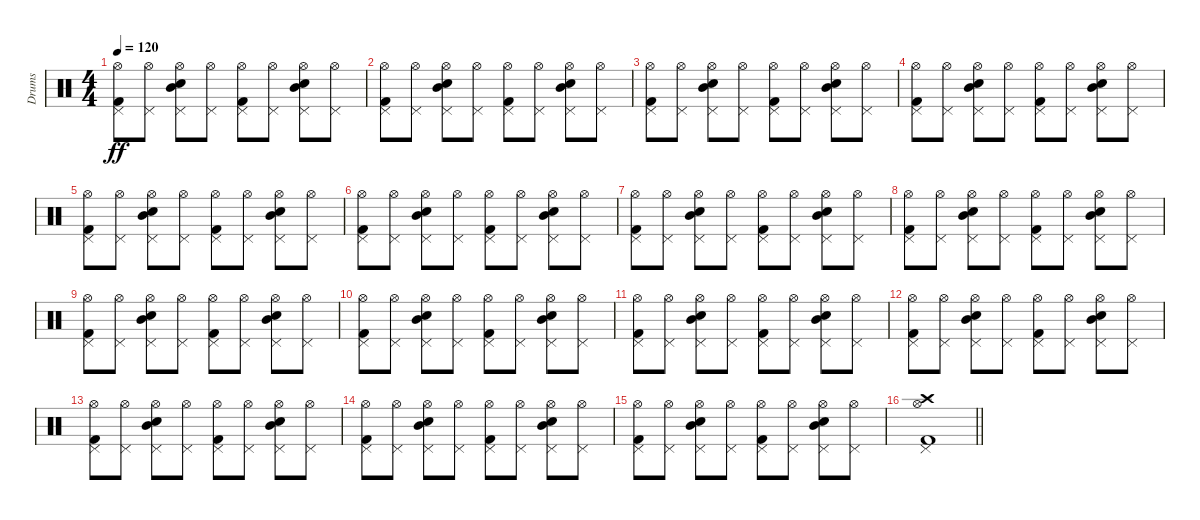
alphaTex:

\track ("Drums" "Drums") {instrument percussion}
\staff {score}
\articulation defaults
\ts (4 4)
\tempo 120
\clef neutral
\ks c
("Pedal Hi-Hat (hit)" "Hi-Hat (open)" "Kick (hit) 2").8{dy ff} ("Pedal Hi-Hat (hit)" "Hi-Hat (open)").8 ("Pedal Hi-Hat (hit)" "Hi-Hat (open)" "Electric Snare (hit)" "Mid Tom (hit)").8 ("Pedal Hi-Hat (hit)" "Hi-Hat (open)").8 ("Pedal Hi-Hat (hit)" "Hi-Hat (open)" "Kick (hit) 2").8 ("Pedal Hi-Hat (hit)" "Hi-Hat (open)").8 ("Pedal Hi-Hat (hit)" "Hi-Hat (open)" "Electric Snare (hit)" "Mid Tom (hit)").8 ("Pedal Hi-Hat (hit)" "Hi-Hat (open)").8 |
("Pedal Hi-Hat (hit)" "Hi-Hat (open)" "Kick (hit) 2").8 ("Pedal Hi-Hat (hit)" "Hi-Hat (open)").8 ("Pedal Hi-Hat (hit)" "Hi-Hat (open)" "Electric Snare (hit)" "Mid Tom (hit)").8 ("Pedal Hi-Hat (hit)" "Hi-Hat (open)").8 ("Pedal Hi-Hat (hit)" "Hi-Hat (open)" "Kick (hit) 2").8 ("Pedal Hi-Hat (hit)" "Hi-Hat (open)").8 ("Pedal Hi-Hat (hit)" "Hi-Hat (open)" "Electric Snare (hit)" "Mid Tom (hit)").8 ("Pedal Hi-Hat (hit)" "Hi-Hat (open)").8 |
("Pedal Hi-Hat (hit)" "Hi-Hat (open)" "Kick (hit) 2").8 ("Pedal Hi-Hat (hit)" "Hi-Hat (open)").8 ("Pedal Hi-Hat (hit)" "Hi-Hat (open)" "Electric Snare (hit)" "Mid Tom (hit)").8 ("Pedal Hi-Hat (hit)" "Hi-Hat (open)").8 ("Pedal Hi-Hat (hit)" "Hi-Hat (open)" "Kick (hit) 2").8 ("Pedal Hi-Hat (hit)" "Hi-Hat (open)").8 ("Pedal Hi-Hat (hit)" "Hi-Hat (open)" "Electric Snare (hit)" "Mid Tom (hit)").8 ("Pedal Hi-Hat (hit)" "Hi-Hat (open)").8 |
("Pedal Hi-Hat (hit)" "Hi-Hat (open)" "Kick (hit) 2").8 ("Pedal Hi-Hat (hit)" "Hi-Hat (open)").8 ("Pedal Hi-Hat (hit)" "Hi-Hat (open)" "Electric Snare (hit)" "Mid Tom (hit)").8 ("Pedal Hi-Hat (hit)" "Hi-Hat (open)").8 ("Pedal Hi-Hat (hit)" "Hi-Hat (open)" "Kick (hit) 2").8 ("Pedal Hi-Hat (hit)" "Hi-Hat (open)").8 ("Pedal Hi-Hat (hit)" "Hi-Hat (open)" "Electric Snare (hit)" "Mid Tom (hit)").8 ("Pedal Hi-Hat (hit)" "Hi-Hat (open)").8 |
("Pedal Hi-Hat (hit)" "Hi-Hat (open)" "Kick (hit) 2").8 ("Pedal Hi-Hat (hit)" "Hi-Hat (open)").8 ("Pedal Hi-Hat (hit)" "Hi-Hat (open)" "Electric Snare (hit)" "Mid Tom (hit)").8 ("Pedal Hi-Hat (hit)" "Hi-Hat (open)").8 ("Pedal Hi-Hat (hit)" "Hi-Hat (open)" "Kick (hit) 2").8 ("Pedal Hi-Hat (hit)" "Hi-Hat (open)").8 ("Pedal Hi-Hat (hit)" "Hi-Hat (open)" "Electric Snare (hit)" "Mid Tom (hit)").8 ("Pedal Hi-Hat (hit)" "Hi-Hat (open)").8 |
("Pedal Hi-Hat (hit)" "Hi-Hat (open)" "Kick (hit) 2").8 ("Pedal Hi-Hat (hit)" "Hi-Hat (open)").8 ("Pedal Hi-Hat (hit)" "Hi-Hat (open)" "Electric Snare (hit)" "Mid Tom (hit)").8 ("Pedal Hi-Hat (hit)" "Hi-Hat (open)").8 ("Pedal Hi-Hat (hit)" "Hi-Hat (open)" "Kick (hit) 2").8 ("Pedal Hi-Hat (hit)" "Hi-Hat (open)").8 ("Pedal Hi-Hat (hit)" "Hi-Hat (open)" "Electric Snare (hit)" "Mid Tom (hit)").8 ("Pedal Hi-Hat (hit)" "Hi-Hat (open)").8 |
("Pedal Hi-Hat (hit)" "Hi-Hat (open)" "Kick (hit) 2").8 ("Pedal Hi-Hat (hit)" "Hi-Hat (open)").8 ("Pedal Hi-Hat (hit)" "Hi-Hat (open)" "Electric Snare (hit)" "Mid Tom (hit)").8 ("Pedal Hi-Hat (hit)" "Hi-Hat (open)").8 ("Pedal Hi-Hat (hit)" "Hi-Hat (open)" "Kick (hit) 2").8 ("Pedal Hi-Hat (hit)" "Hi-Hat (open)").8 ("Pedal Hi-Hat (hit)" "Hi-Hat (open)" "Electric Snare (hit)" "Mid Tom (hit)").8 ("Pedal Hi-Hat (hit)" "Hi-Hat (open)").8 |
("Pedal Hi-Hat (hit)" "Hi-Hat (open)" "Kick (hit) 2").8 ("Pedal Hi-Hat (hit)" "Hi-Hat (open)").8 ("Pedal Hi-Hat (hit)" "Hi-Hat (open)" "Electric Snare (hit)" "Mid Tom (hit)").8 ("Pedal Hi-Hat (hit)" "Hi-Hat (open)").8 ("Pedal Hi-Hat (hit)" "Hi-Hat (open)" "Kick (hit) 2").8 ("Pedal Hi-Hat (hit)" "Hi-Hat (open)").8 ("Pedal Hi-Hat (hit)" "Hi-Hat (open)" "Electric Snare (hit)" "Mid Tom (hit)").8 ("Pedal Hi-Hat (hit)" "Hi-Hat (open)").8 |
("Pedal Hi-Hat (hit)" "Hi-Hat (open)" "Kick (hit) 2").8 ("Pedal Hi-Hat (hit)" "Hi-Hat (open)").8 ("Pedal Hi-Hat (hit)" "Hi-Hat (open)" "Electric Snare (hit)" "Mid Tom (hit)").8 ("Pedal Hi-Hat (hit)" "Hi-Hat (open)").8 ("Pedal Hi-Hat (hit)" "Hi-Hat (open)" "Kick (hit) 2").8 ("Pedal Hi-Hat (hit)" "Hi-Hat (open)").8 ("Pedal Hi-Hat (hit)" "Hi-Hat (open)" "Electric Snare (hit)" "Mid Tom (hit)").8 ("Pedal Hi-Hat (hit)" "Hi-Hat (open)").8 |
("Pedal Hi-Hat (hit)" "Hi-Hat (open)" "Kick (hit) 2").8 ("Pedal Hi-Hat (hit)" "Hi-Hat (open)").8 ("Pedal Hi-Hat (hit)" "Hi-Hat (open)" "Electric Snare (hit)" "Mid Tom (hit)").8 ("Pedal Hi-Hat (hit)" "Hi-Hat (open)").8 ("Pedal Hi-Hat (hit)" "Hi-Hat (open)" "Kick (hit) 2").8 ("Pedal Hi-Hat (hit)" "Hi-Hat (open)").8 ("Pedal Hi-Hat (hit)" "Hi-Hat (open)" "Electric Snare (hit)" "Mid Tom (hit)").8 ("Pedal Hi-Hat (hit)" "Hi-Hat (open)").8 |
("Pedal Hi-Hat (hit)" "Hi-Hat (open)" "Kick (hit) 2").8 ("Pedal Hi-Hat (hit)" "Hi-Hat (open)").8 ("Pedal Hi-Hat (hit)" "Hi-Hat (open)" "Electric Snare (hit)" "Mid Tom (hit)").8 ("Pedal Hi-Hat (hit)" "Hi-Hat (open)").8 ("Pedal Hi-Hat (hit)" "Hi-Hat (open)" "Kick (hit) 2").8 ("Pedal Hi-Hat (hit)" "Hi-Hat (open)").8 ("Pedal Hi-Hat (hit)" "Hi-Hat (open)" "Electric Snare (hit)" "Mid Tom (hit)").8 ("Pedal Hi-Hat (hit)" "Hi-Hat (open)").8 |
("Pedal Hi-Hat (hit)" "Hi-Hat (open)" "Kick (hit) 2").8 ("Pedal Hi-Hat (hit)" "Hi-Hat (open)").8 ("Pedal Hi-Hat (hit)" "Hi-Hat (open)" "Electric Snare (hit)" "Mid Tom (hit)").8 ("Pedal Hi-Hat (hit)" "Hi-Hat (open)").8 ("Pedal Hi-Hat (hit)" "Hi-Hat (open)" "Kick (hit) 2").8 ("Pedal Hi-Hat (hit)" "Hi-Hat (open)").8 ("Pedal Hi-Hat (hit)" "Hi-Hat (open)" "Electric Snare (hit)" "Mid Tom (hit)").8 ("Pedal Hi-Hat (hit)" "Hi-Hat (open)").8 |
("Pedal Hi-Hat (hit)" "Hi-Hat (open)" "Kick (hit) 2").8 ("Pedal Hi-Hat (hit)" "Hi-Hat (open)").8 ("Pedal Hi-Hat (hit)" "Hi-Hat (open)" "Electric Snare (hit)" "Mid Tom (hit)").8 ("Pedal Hi-Hat (hit)" "Hi-Hat (open)").8 ("Pedal Hi-Hat (hit)" "Hi-Hat (open)" "Kick (hit) 2").8 ("Pedal Hi-Hat (hit)" "Hi-Hat (open)").8 ("Pedal Hi-Hat (hit)" "Hi-Hat (open)" "Electric Snare (hit)" "Mid Tom (hit)").8 ("Pedal Hi-Hat (hit)" "Hi-Hat (open)").8 |
("Pedal Hi-Hat (hit)" "Hi-Hat (open)" "Kick (hit) 2").8 ("Pedal Hi-Hat (hit)" "Hi-Hat (open)").8 ("Pedal Hi-Hat (hit)" "Hi-Hat (open)" "Electric Snare (hit)" "Mid Tom (hit)").8 ("Pedal Hi-Hat (hit)" "Hi-Hat (open)").8 ("Pedal Hi-Hat (hit)" "Hi-Hat (open)" "Kick (hit) 2").8 ("Pedal Hi-Hat (hit)" "Hi-Hat (open)").8 ("Pedal Hi-Hat (hit)" "Hi-Hat (open)" "Electric Snare (hit)" "Mid Tom (hit)").8 ("Pedal Hi-Hat (hit)" "Hi-Hat (open)").8 |
("Pedal Hi-Hat (hit)" "Hi-Hat (open)" "Kick (hit) 2").8 ("Pedal Hi-Hat (hit)" "Hi-Hat (open)").8 ("Pedal Hi-Hat (hit)" "Hi-Hat (open)" "Electric Snare (hit)" "Mid Tom (hit)").8 ("Pedal Hi-Hat (hit)" "Hi-Hat (open)").8 ("Pedal Hi-Hat (hit)" "Hi-Hat (open)" "Kick (hit) 2").8 ("Pedal Hi-Hat (hit)" "Hi-Hat (open)").8 ("Pedal Hi-Hat (hit)" "Hi-Hat (open)" "Electric Snare (hit)" "Mid Tom (hit)").8 ("Pedal Hi-Hat (hit)" "Hi-Hat (open)").8 |
\barLineRight lightlight
("Pedal Hi-Hat (hit)" "Hi-Hat (open)" "Crash high (hit)" "Kick (hit) 2").1
